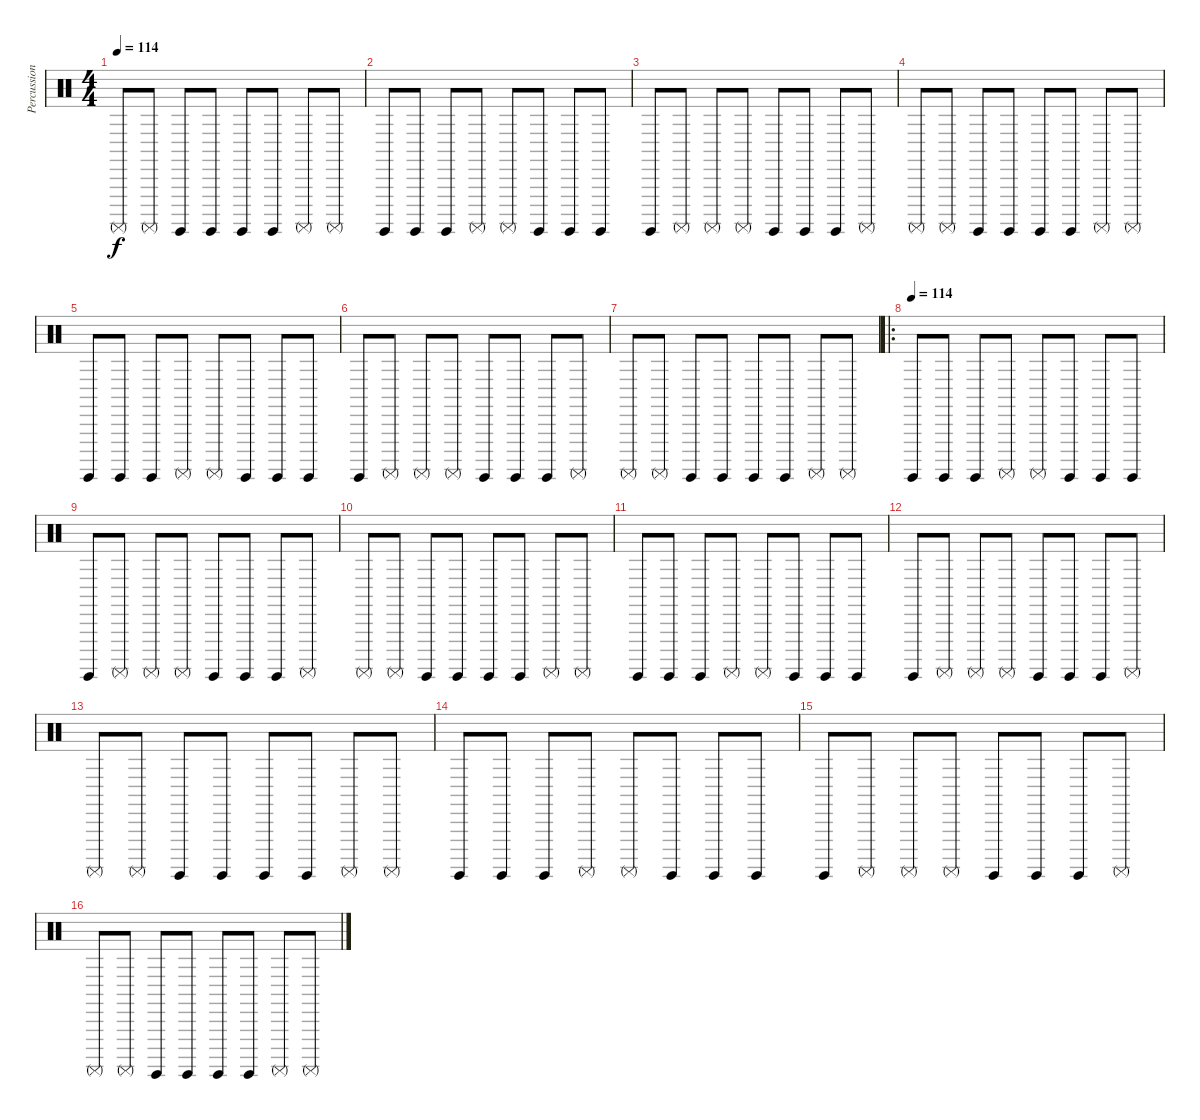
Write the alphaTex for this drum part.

\track ("Percussion" "Percussion") {instrument percussion}
\staff {score}
\articulation defaults
\ts (4 4)
\tempo 114
\clef neutral
\ks c "Surdo (mute)".8{dy f} "Surdo (mute)".8 "Surdo (hit)".8 "Surdo (hit)".8 "Surdo (hit)".8 "Surdo (hit)".8 "Surdo (mute)".8 "Surdo (mute)".8
|
"Surdo (hit)".8 "Surdo (hit)".8 "Surdo (hit)".8 "Surdo (mute)".8 "Surdo (mute)".8 "Surdo (hit)".8 "Surdo (hit)".8 "Surdo (hit)".8 |
"Surdo (hit)".8 "Surdo (mute)".8 "Surdo (mute)".8 "Surdo (mute)".8 "Surdo (hit)".8 "Surdo (hit)".8 "Surdo (hit)".8 "Surdo (mute)".8 |
"Surdo (mute)".8 "Surdo (mute)".8 "Surdo (hit)".8 "Surdo (hit)".8 "Surdo (hit)".8 "Surdo (hit)".8 "Surdo (mute)".8 "Surdo (mute)".8 |
"Surdo (hit)".8 "Surdo (hit)".8 "Surdo (hit)".8 "Surdo (mute)".8 "Surdo (mute)".8 "Surdo (hit)".8 "Surdo (hit)".8 "Surdo (hit)".8 |
"Surdo (hit)".8 "Surdo (mute)".8 "Surdo (mute)".8 "Surdo (mute)".8 "Surdo (hit)".8 "Surdo (hit)".8 "Surdo (hit)".8 "Surdo (mute)".8 |
"Surdo (mute)".8 "Surdo (mute)".8 "Surdo (hit)".8 "Surdo (hit)".8 "Surdo (hit)".8 "Surdo (hit)".8 "Surdo (mute)".8 "Surdo (mute)".8 |
\ro
\tempo (114)
"Surdo (hit)".8 "Surdo (hit)".8 "Surdo (hit)".8 "Surdo (mute)".8 "Surdo (mute)".8 "Surdo (hit)".8 "Surdo (hit)".8 "Surdo (hit)".8 |
"Surdo (hit)".8 "Surdo (mute)".8 "Surdo (mute)".8 "Surdo (mute)".8 "Surdo (hit)".8 "Surdo (hit)".8 "Surdo (hit)".8 "Surdo (mute)".8 |
"Surdo (mute)".8 "Surdo (mute)".8 "Surdo (hit)".8 "Surdo (hit)".8 "Surdo (hit)".8 "Surdo (hit)".8 "Surdo (mute)".8 "Surdo (mute)".8 |
"Surdo (hit)".8 "Surdo (hit)".8 "Surdo (hit)".8 "Surdo (mute)".8 "Surdo (mute)".8 "Surdo (hit)".8 "Surdo (hit)".8 "Surdo (hit)".8 |
"Surdo (hit)".8 "Surdo (mute)".8 "Surdo (mute)".8 "Surdo (mute)".8 "Surdo (hit)".8 "Surdo (hit)".8 "Surdo (hit)".8 "Surdo (mute)".8 |
"Surdo (mute)".8 "Surdo (mute)".8 "Surdo (hit)".8 "Surdo (hit)".8 "Surdo (hit)".8 "Surdo (hit)".8 "Surdo (mute)".8 "Surdo (mute)".8 |
"Surdo (hit)".8 "Surdo (hit)".8 "Surdo (hit)".8 "Surdo (mute)".8 "Surdo (mute)".8 "Surdo (hit)".8 "Surdo (hit)".8 "Surdo (hit)".8 |
"Surdo (hit)".8 "Surdo (mute)".8 "Surdo (mute)".8 "Surdo (mute)".8 "Surdo (hit)".8 "Surdo (hit)".8 "Surdo (hit)".8 "Surdo (mute)".8 |
"Surdo (mute)".8 "Surdo (mute)".8 "Surdo (hit)".8 "Surdo (hit)".8 "Surdo (hit)".8 "Surdo (hit)".8 "Surdo (mute)".8 "Surdo (mute)".8
